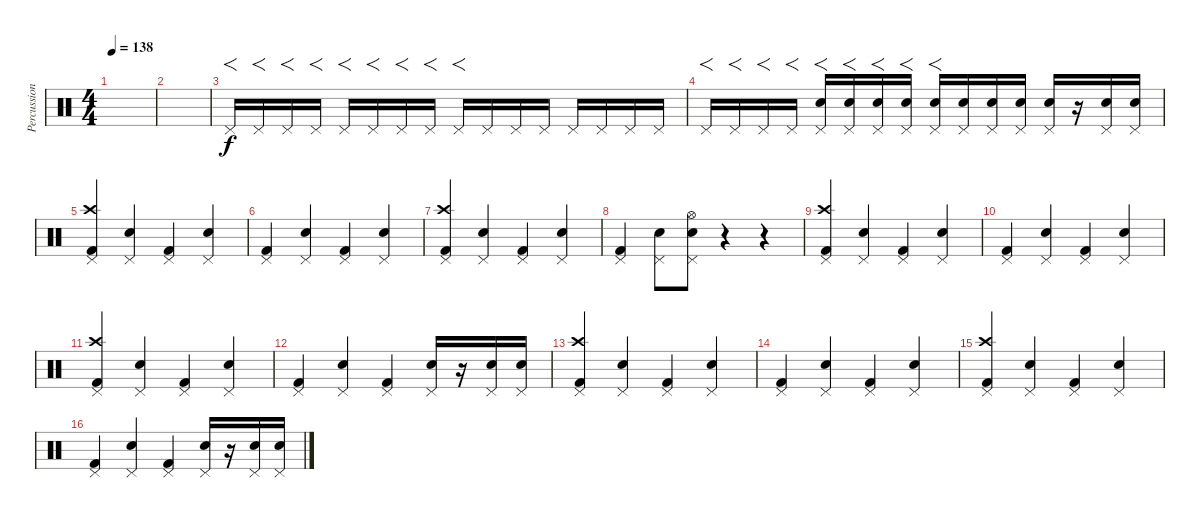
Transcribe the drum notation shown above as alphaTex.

\track ("Percussion" "Percussion") {instrument percussion}
\staff {score}
\articulation defaults
\ts (4 4)
\tempo 138
\clef neutral
\ks c
|
|
"Pedal Hi-Hat (hit)".16{f} "Pedal Hi-Hat (hit)".16{f} "Pedal Hi-Hat (hit)".16{f} "Pedal Hi-Hat (hit)".16{f} "Pedal Hi-Hat (hit)".16{f} "Pedal Hi-Hat (hit)".16{f} "Pedal Hi-Hat (hit)".16{f} "Pedal Hi-Hat (hit)".16{f} "Pedal Hi-Hat (hit)".16{f} "Pedal Hi-Hat (hit)".16 "Pedal Hi-Hat (hit)".16 "Pedal Hi-Hat (hit)".16 "Pedal Hi-Hat (hit)".16 "Pedal Hi-Hat (hit)".16 "Pedal Hi-Hat (hit)".16 "Pedal Hi-Hat (hit)".16 |
"Pedal Hi-Hat (hit)".16{f} "Pedal Hi-Hat (hit)".16{f} "Pedal Hi-Hat (hit)".16{f} "Pedal Hi-Hat (hit)".16{f} ("Pedal Hi-Hat (hit)" "Snare (hit) 2").16{f} ("Pedal Hi-Hat (hit)" "Snare (hit) 2").16{f} ("Pedal Hi-Hat (hit)" "Snare (hit) 2").16{f} ("Pedal Hi-Hat (hit)" "Snare (hit) 2").16{f} ("Pedal Hi-Hat (hit)" "Snare (hit) 2").16{f} ("Pedal Hi-Hat (hit)" "Snare (hit) 2").16 ("Pedal Hi-Hat (hit)" "Snare (hit) 2").16 ("Pedal Hi-Hat (hit)" "Snare (hit) 2").16 ("Pedal Hi-Hat (hit)" "Snare (hit) 2").16 r.16 ("Pedal Hi-Hat (hit)" "Snare (hit) 2").16 ("Pedal Hi-Hat (hit)" "Snare (hit) 2").16 |
("Pedal Hi-Hat (hit)" "Crash high (hit)" "Kick (hit) 2").4 ("Pedal Hi-Hat (hit)" "Snare (hit) 2").4 ("Pedal Hi-Hat (hit)" "Kick (hit) 2").4 ("Pedal Hi-Hat (hit)" "Snare (hit) 2").4 |
("Pedal Hi-Hat (hit)" "Kick (hit) 2").4 ("Pedal Hi-Hat (hit)" "Snare (hit) 2").4 ("Pedal Hi-Hat (hit)" "Kick (hit) 2").4 ("Pedal Hi-Hat (hit)" "Snare (hit) 2").4 |
("Pedal Hi-Hat (hit)" "Crash high (hit)" "Kick (hit) 2").4 ("Pedal Hi-Hat (hit)" "Snare (hit) 2").4 ("Pedal Hi-Hat (hit)" "Kick (hit) 2").4 ("Pedal Hi-Hat (hit)" "Snare (hit) 2").4 |
("Pedal Hi-Hat (hit)" "Kick (hit) 2").4 ("Pedal Hi-Hat (hit)" "Snare (hit) 2").8 ("Pedal Hi-Hat (hit)" "Snare (hit) 2" "Hi-Hat (open)").8 r.4 r.4 |
("Pedal Hi-Hat (hit)" "Crash high (hit)" "Kick (hit) 2").4 ("Pedal Hi-Hat (hit)" "Snare (hit) 2").4 ("Pedal Hi-Hat (hit)" "Kick (hit) 2").4 ("Pedal Hi-Hat (hit)" "Snare (hit) 2").4 |
("Pedal Hi-Hat (hit)" "Kick (hit) 2").4 ("Pedal Hi-Hat (hit)" "Snare (hit) 2").4 ("Pedal Hi-Hat (hit)" "Kick (hit) 2").4 ("Pedal Hi-Hat (hit)" "Snare (hit) 2").4 |
("Pedal Hi-Hat (hit)" "Crash high (hit)" "Kick (hit) 2").4 ("Pedal Hi-Hat (hit)" "Snare (hit) 2").4 ("Pedal Hi-Hat (hit)" "Kick (hit) 2").4 ("Pedal Hi-Hat (hit)" "Snare (hit) 2").4 |
("Pedal Hi-Hat (hit)" "Kick (hit) 2").4 ("Pedal Hi-Hat (hit)" "Snare (hit) 2").4 ("Pedal Hi-Hat (hit)" "Kick (hit) 2").4 ("Pedal Hi-Hat (hit)" "Snare (hit) 2").16 r.16 ("Pedal Hi-Hat (hit)" "Snare (hit) 2").16 ("Pedal Hi-Hat (hit)" "Snare (hit) 2").16 |
("Pedal Hi-Hat (hit)" "Crash high (hit)" "Kick (hit) 2").4 ("Pedal Hi-Hat (hit)" "Snare (hit) 2").4 ("Pedal Hi-Hat (hit)" "Kick (hit) 2").4 ("Pedal Hi-Hat (hit)" "Snare (hit) 2").4 |
("Pedal Hi-Hat (hit)" "Kick (hit) 2").4 ("Pedal Hi-Hat (hit)" "Snare (hit) 2").4 ("Pedal Hi-Hat (hit)" "Kick (hit) 2").4 ("Pedal Hi-Hat (hit)" "Snare (hit) 2").4 |
("Pedal Hi-Hat (hit)" "Crash high (hit)" "Kick (hit) 2").4 ("Pedal Hi-Hat (hit)" "Snare (hit) 2").4 ("Pedal Hi-Hat (hit)" "Kick (hit) 2").4 ("Pedal Hi-Hat (hit)" "Snare (hit) 2").4 |
("Pedal Hi-Hat (hit)" "Kick (hit) 2").4 ("Pedal Hi-Hat (hit)" "Snare (hit) 2").4 ("Pedal Hi-Hat (hit)" "Kick (hit) 2").4 ("Pedal Hi-Hat (hit)" "Snare (hit) 2").16 r.16 ("Pedal Hi-Hat (hit)" "Snare (hit) 2").16 ("Pedal Hi-Hat (hit)" "Snare (hit) 2").16
